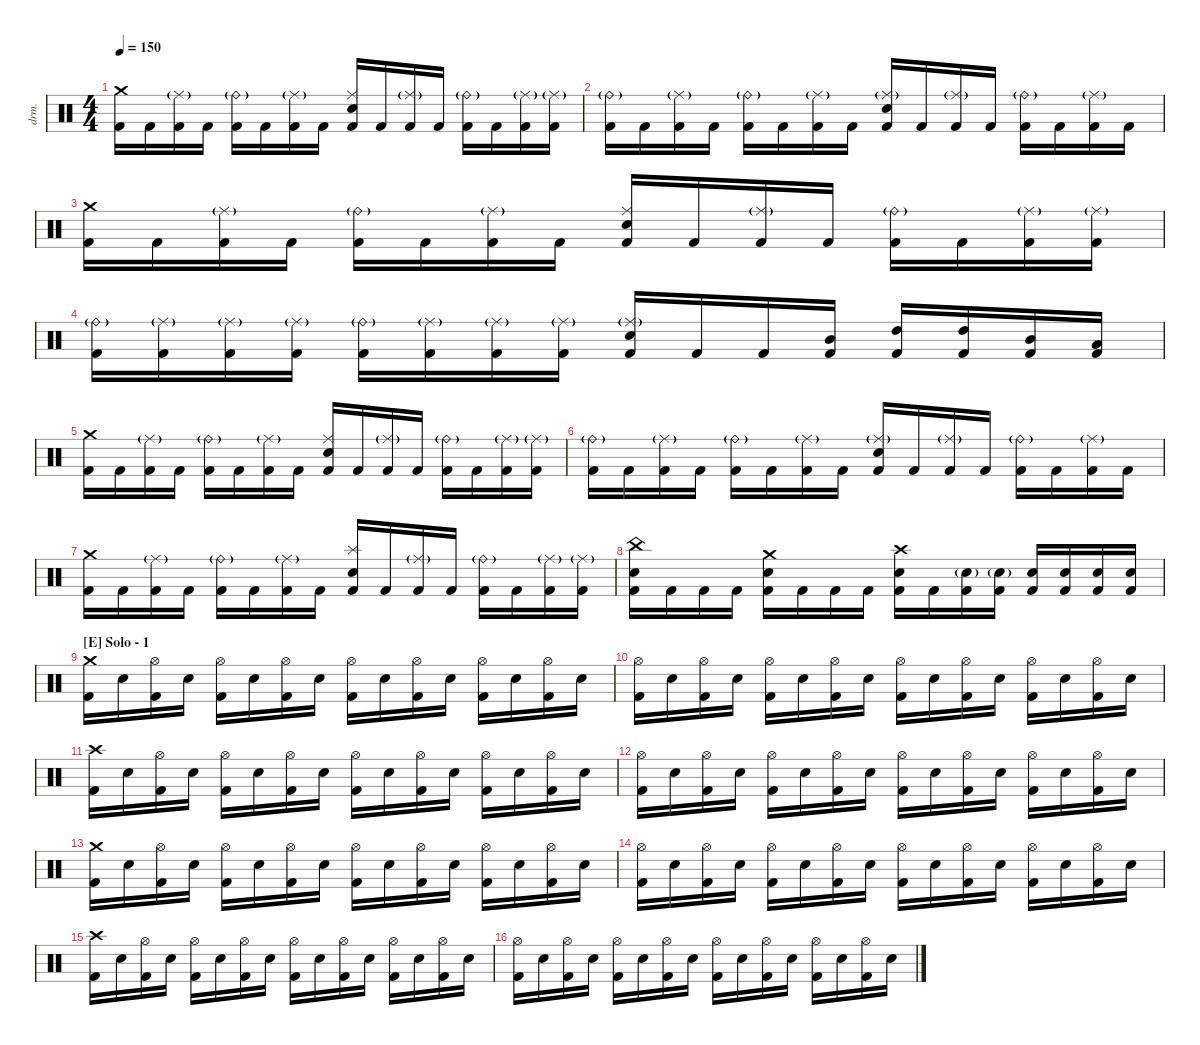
\hideDynamics
\bracketExtendMode nobrackets
\track ("Drums" "drm.") {instrument percussion}
\staff {score}
\articulation defaults
\ts (4 4)
\tempo 150
\clef neutral
\ks c
("Kick (hit) 2" "Crash medium (hit)").16{dy mf beam Down} "Kick (hit) 2".16{beam Down} ("Kick (hit) 2" "Ride (middle)"{g}).16{beam Down} "Kick (hit) 2".16{beam Down} ("Kick (hit) 2" "Ride (bell)"{g}).16{beam Down} "Kick (hit) 2".16{beam Down} ("Kick (hit) 2" "Ride (middle)"{g}).16{beam Down} "Kick (hit) 2".16{beam Down} ("Kick (hit) 2" "Snare (hit) 2" "Ride (middle)").16{beam Up} "Kick (hit) 2".16{beam Up} ("Kick (hit) 2" "Ride (middle)"{g}).16{beam Up} "Kick (hit) 2".16{beam Up} ("Kick (hit) 2" "Ride (bell)"{g}).16{beam Down} "Kick (hit) 2".16{beam Down} ("Kick (hit) 2" "Ride (middle)"{g}).16{beam Down} ("Kick (hit) 2" "Ride (middle)"{g}).16{beam Down} |
("Kick (hit) 2" "Ride (bell)"{g}).16{beam Down} "Kick (hit) 2".16{beam Down} ("Kick (hit) 2" "Ride (middle)"{g}).16{beam Down} "Kick (hit) 2".16{beam Down} ("Kick (hit) 2" "Ride (bell)"{g}).16{beam Down} "Kick (hit) 2".16{beam Down} ("Kick (hit) 2" "Ride (middle)"{g}).16{beam Down} "Kick (hit) 2".16{beam Down} ("Kick (hit) 2" "Snare (hit) 2" "Ride (middle)"{g}).16{beam Up} "Kick (hit) 2".16{beam Up} ("Kick (hit) 2" "Ride (middle)"{g}).16{beam Up} "Kick (hit) 2".16{beam Up} ("Kick (hit) 2" "Ride (bell)"{g}).16{beam Down} "Kick (hit) 2".16{beam Down} ("Kick (hit) 2" "Ride (middle)"{g}).16{beam Down} "Kick (hit) 2".16{beam Down} |
("Kick (hit) 2" "Crash medium (hit)").16{beam Down} "Kick (hit) 2".16{beam Down} ("Kick (hit) 2" "Ride (middle)"{g}).16{beam Down} "Kick (hit) 2".16{beam Down} ("Kick (hit) 2" "Ride (bell)"{g}).16{beam Down} "Kick (hit) 2".16{beam Down} ("Kick (hit) 2" "Ride (middle)"{g}).16{beam Down} "Kick (hit) 2".16{beam Down} ("Kick (hit) 2" "Snare (hit) 2" "Ride (middle)").16{beam Up} "Kick (hit) 2".16{beam Up} ("Kick (hit) 2" "Ride (middle)"{g}).16{beam Up} "Kick (hit) 2".16{beam Up} ("Kick (hit) 2" "Ride (bell)"{g}).16{beam Down} "Kick (hit) 2".16{beam Down} ("Kick (hit) 2" "Ride (middle)"{g}).16{beam Down} ("Kick (hit) 2" "Ride (middle)"{g}).16{beam Down} |
("Kick (hit) 2" "Ride (bell)"{g}).16{beam Down} ("Kick (hit) 2" "Ride (middle)"{g}).16{beam Down} ("Kick (hit) 2" "Ride (middle)"{g}).16{beam Down} ("Kick (hit) 2" "Ride (middle)"{g}).16{beam Down} ("Kick (hit) 2" "Ride (bell)"{g}).16{beam Down} ("Kick (hit) 2" "Ride (middle)"{g}).16{beam Down} ("Kick (hit) 2" "Ride (middle)"{g}).16{beam Down} ("Kick (hit) 2" "Ride (middle)"{g}).16{beam Down} ("Kick (hit) 2" "Snare (hit) 2" "Ride (middle)"{g}).16{beam Up} "Kick (hit) 2".16{beam Up} "Kick (hit) 2".16{beam Up} ("Kick (hit) 2" "Mid Tom (hit)").16{beam Up} ("Kick (hit) 2" "High Tom (hit)").16{beam Up} ("Kick (hit) 2" "High Tom (hit)").16{beam Up} ("Kick (hit) 2" "Mid Tom (hit)").16{beam Up} ("Kick (hit) 2" "Low Tom (hit)").16{beam Up} |
("Kick (hit) 2" "Crash medium (hit)").16{beam Down} "Kick (hit) 2".16{beam Down} ("Kick (hit) 2" "Ride (middle)"{g}).16{beam Down} "Kick (hit) 2".16{beam Down} ("Kick (hit) 2" "Ride (bell)"{g}).16{beam Down} "Kick (hit) 2".16{beam Down} ("Kick (hit) 2" "Ride (middle)"{g}).16{beam Down} "Kick (hit) 2".16{beam Down} ("Kick (hit) 2" "Snare (hit) 2" "Ride (middle)").16{beam Up} "Kick (hit) 2".16{beam Up} ("Kick (hit) 2" "Ride (middle)"{g}).16{beam Up} "Kick (hit) 2".16{beam Up} ("Kick (hit) 2" "Ride (bell)"{g}).16{beam Down} "Kick (hit) 2".16{beam Down} ("Kick (hit) 2" "Ride (middle)"{g}).16{beam Down} ("Kick (hit) 2" "Ride (middle)"{g}).16{beam Down} |
("Kick (hit) 2" "Ride (bell)"{g}).16{beam Down} "Kick (hit) 2".16{beam Down} ("Kick (hit) 2" "Ride (middle)"{g}).16{beam Down} "Kick (hit) 2".16{beam Down} ("Kick (hit) 2" "Ride (bell)"{g}).16{beam Down} "Kick (hit) 2".16{beam Down} ("Kick (hit) 2" "Ride (middle)"{g}).16{beam Down} "Kick (hit) 2".16{beam Down} ("Kick (hit) 2" "Snare (hit) 2" "Ride (middle)"{g}).16{beam Up} "Kick (hit) 2".16{beam Up} ("Kick (hit) 2" "Ride (middle)"{g}).16{beam Up} "Kick (hit) 2".16{beam Up} ("Kick (hit) 2" "Ride (bell)"{g}).16{beam Down} "Kick (hit) 2".16{beam Down} ("Kick (hit) 2" "Ride (middle)"{g}).16{beam Down} "Kick (hit) 2".16{beam Down} |
("Kick (hit) 2" "Crash medium (hit)").16{beam Down} "Kick (hit) 2".16{beam Down} ("Kick (hit) 2" "Ride (middle)"{g}).16{beam Down} "Kick (hit) 2".16{beam Down} ("Kick (hit) 2" "Ride (bell)"{g}).16{beam Down} "Kick (hit) 2".16{beam Down} ("Kick (hit) 2" "Ride (middle)"{g}).16{beam Down} "Kick (hit) 2".16{beam Down} ("Kick (hit) 2" "Snare (hit) 2" "Splash (hit)").16{beam Up} "Kick (hit) 2".16{beam Up} ("Kick (hit) 2" "Ride (middle)"{g}).16{beam Up} "Kick (hit) 2".16{beam Up} ("Kick (hit) 2" "Ride (bell)"{g}).16{beam Down} "Kick (hit) 2".16{beam Down} ("Kick (hit) 2" "Ride (middle)"{g}).16{beam Down} ("Kick (hit) 2" "Ride (middle)"{g}).16{beam Down} |
("Kick (hit) 2" "Snare (hit) 2" "China (hit)").16{beam Down} "Kick (hit) 2".16{beam Down} "Kick (hit) 2".16{beam Down} "Kick (hit) 2".16{beam Down} ("Kick (hit) 2" "Snare (hit) 2" "Crash medium (hit)").16{beam Down} "Kick (hit) 2".16{beam Down} "Kick (hit) 2".16{beam Down} "Kick (hit) 2".16{beam Down} ("Kick (hit) 2" "Snare (hit) 2" "Crash high (hit)").16{beam Down} "Kick (hit) 2".16{beam Down} ("Kick (hit) 2" "Snare (hit) 2"{g}).16{beam Down} ("Kick (hit) 2" "Snare (hit) 2"{g}).16{beam Down} ("Kick (hit) 2" "Snare (hit) 2").16{beam Up} ("Kick (hit) 2" "Snare (hit) 2").16{beam Up} ("Kick (hit) 2" "Snare (hit) 2").16{beam Up} ("Kick (hit) 2" "Snare (hit) 2").16{beam Up} |
\section ("E" "Solo - 1 ")
("Kick (hit) 2" "Crash medium (hit)").16{beam Down} "Snare (hit) 2".16{beam Down} ("Kick (hit) 2" "Hi-Hat (open)").16{beam Down} "Snare (hit) 2".16{beam Down} ("Kick (hit) 2" "Hi-Hat (open)").16{beam Down} "Snare (hit) 2".16{beam Down} ("Kick (hit) 2" "Hi-Hat (open)").16{beam Down} "Snare (hit) 2".16{beam Down} ("Kick (hit) 2" "Hi-Hat (open)").16{beam Down} "Snare (hit) 2".16{beam Down} ("Kick (hit) 2" "Hi-Hat (open)").16{beam Down} "Snare (hit) 2".16{beam Down} ("Kick (hit) 2" "Hi-Hat (open)").16{beam Down} "Snare (hit) 2".16{beam Down} ("Kick (hit) 2" "Hi-Hat (open)").16{beam Down} "Snare (hit) 2".16{beam Down} |
("Kick (hit) 2" "Hi-Hat (open)").16{beam Down} "Snare (hit) 2".16{beam Down} ("Kick (hit) 2" "Hi-Hat (open)").16{beam Down} "Snare (hit) 2".16{beam Down} ("Kick (hit) 2" "Hi-Hat (open)").16{beam Down} "Snare (hit) 2".16{beam Down} ("Kick (hit) 2" "Hi-Hat (open)").16{beam Down} "Snare (hit) 2".16{beam Down} ("Kick (hit) 2" "Hi-Hat (open)").16{beam Down} "Snare (hit) 2".16{beam Down} ("Kick (hit) 2" "Hi-Hat (open)").16{beam Down} "Snare (hit) 2".16{beam Down} ("Kick (hit) 2" "Hi-Hat (open)").16{beam Down} "Snare (hit) 2".16{beam Down} ("Kick (hit) 2" "Hi-Hat (open)").16{beam Down} "Snare (hit) 2".16{beam Down} |
("Kick (hit) 2" "Crash high (hit)").16{beam Down} "Snare (hit) 2".16{beam Down} ("Kick (hit) 2" "Hi-Hat (open)").16{beam Down} "Snare (hit) 2".16{beam Down} ("Kick (hit) 2" "Hi-Hat (open)").16{beam Down} "Snare (hit) 2".16{beam Down} ("Kick (hit) 2" "Hi-Hat (open)").16{beam Down} "Snare (hit) 2".16{beam Down} ("Kick (hit) 2" "Hi-Hat (open)").16{beam Down} "Snare (hit) 2".16{beam Down} ("Kick (hit) 2" "Hi-Hat (open)").16{beam Down} "Snare (hit) 2".16{beam Down} ("Kick (hit) 2" "Hi-Hat (open)").16{beam Down} "Snare (hit) 2".16{beam Down} ("Kick (hit) 2" "Hi-Hat (open)").16{beam Down} "Snare (hit) 2".16{beam Down} |
("Kick (hit) 2" "Hi-Hat (open)").16{beam Down} "Snare (hit) 2".16{beam Down} ("Kick (hit) 2" "Hi-Hat (open)").16{beam Down} "Snare (hit) 2".16{beam Down} ("Kick (hit) 2" "Hi-Hat (open)").16{beam Down} "Snare (hit) 2".16{beam Down} ("Kick (hit) 2" "Hi-Hat (open)").16{beam Down} "Snare (hit) 2".16{beam Down} ("Kick (hit) 2" "Hi-Hat (open)").16{beam Down} "Snare (hit) 2".16{beam Down} ("Kick (hit) 2" "Hi-Hat (open)").16{beam Down} "Snare (hit) 2".16{beam Down} ("Kick (hit) 2" "Hi-Hat (open)").16{beam Down} "Snare (hit) 2".16{beam Down} ("Kick (hit) 2" "Hi-Hat (open)").16{beam Down} "Snare (hit) 2".16{beam Down} |
("Kick (hit) 2" "Crash medium (hit)").16{beam Down} "Snare (hit) 2".16{beam Down} ("Kick (hit) 2" "Hi-Hat (open)").16{beam Down} "Snare (hit) 2".16{beam Down} ("Kick (hit) 2" "Hi-Hat (open)").16{beam Down} "Snare (hit) 2".16{beam Down} ("Kick (hit) 2" "Hi-Hat (open)").16{beam Down} "Snare (hit) 2".16{beam Down} ("Kick (hit) 2" "Hi-Hat (open)").16{beam Down} "Snare (hit) 2".16{beam Down} ("Kick (hit) 2" "Hi-Hat (open)").16{beam Down} "Snare (hit) 2".16{beam Down} ("Kick (hit) 2" "Hi-Hat (open)").16{beam Down} "Snare (hit) 2".16{beam Down} ("Kick (hit) 2" "Hi-Hat (open)").16{beam Down} "Snare (hit) 2".16{beam Down} |
("Kick (hit) 2" "Hi-Hat (open)").16{beam Down} "Snare (hit) 2".16{beam Down} ("Kick (hit) 2" "Hi-Hat (open)").16{beam Down} "Snare (hit) 2".16{beam Down} ("Kick (hit) 2" "Hi-Hat (open)").16{beam Down} "Snare (hit) 2".16{beam Down} ("Kick (hit) 2" "Hi-Hat (open)").16{beam Down} "Snare (hit) 2".16{beam Down} ("Kick (hit) 2" "Hi-Hat (open)").16{beam Down} "Snare (hit) 2".16{beam Down} ("Kick (hit) 2" "Hi-Hat (open)").16{beam Down} "Snare (hit) 2".16{beam Down} ("Kick (hit) 2" "Hi-Hat (open)").16{beam Down} "Snare (hit) 2".16{beam Down} ("Kick (hit) 2" "Hi-Hat (open)").16{beam Down} "Snare (hit) 2".16{beam Down} |
("Kick (hit) 2" "Crash high (hit)").16{beam Down} "Snare (hit) 2".16{beam Down} ("Kick (hit) 2" "Hi-Hat (open)").16{beam Down} "Snare (hit) 2".16{beam Down} ("Kick (hit) 2" "Hi-Hat (open)").16{beam Down} "Snare (hit) 2".16{beam Down} ("Kick (hit) 2" "Hi-Hat (open)").16{beam Down} "Snare (hit) 2".16{beam Down} ("Kick (hit) 2" "Hi-Hat (open)").16{beam Down} "Snare (hit) 2".16{beam Down} ("Kick (hit) 2" "Hi-Hat (open)").16{beam Down} "Snare (hit) 2".16{beam Down} ("Kick (hit) 2" "Hi-Hat (open)").16{beam Down} "Snare (hit) 2".16{beam Down} ("Kick (hit) 2" "Hi-Hat (open)").16{beam Down} "Snare (hit) 2".16{beam Down} |
("Kick (hit) 2" "Hi-Hat (open)").16{beam Down} "Snare (hit) 2".16{beam Down} ("Kick (hit) 2" "Hi-Hat (open)").16{beam Down} "Snare (hit) 2".16{beam Down} ("Kick (hit) 2" "Hi-Hat (open)").16{beam Down} "Snare (hit) 2".16{beam Down} ("Kick (hit) 2" "Hi-Hat (open)").16{beam Down} "Snare (hit) 2".16{beam Down} ("Kick (hit) 2" "Hi-Hat (open)").16{beam Down} "Snare (hit) 2".16{beam Down} ("Kick (hit) 2" "Hi-Hat (open)").16{beam Down} "Snare (hit) 2".16{beam Down} ("Kick (hit) 2" "Hi-Hat (open)").16{beam Down} "Snare (hit) 2".16{beam Down} ("Kick (hit) 2" "Hi-Hat (open)").16{beam Down} "Snare (hit) 2".16{beam Down}
